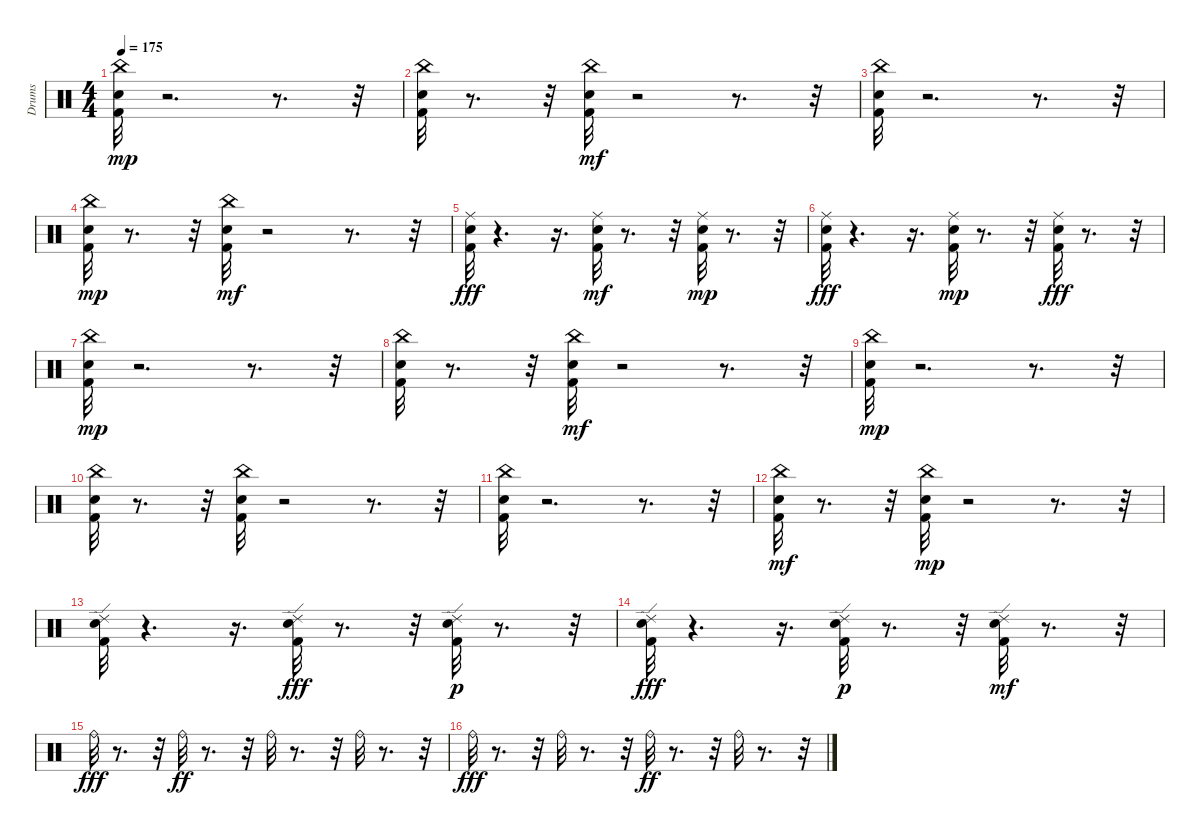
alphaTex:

\track ("Drums" "Drums") {instrument percussion}
\staff {score}
\articulation defaults
\ts (4 4)
\tempo 175
\clef neutral
\ks c
("China (hit)" "Snare (hit) 2" "Kick (hit) 2").32{dy mp} r.2{d} r.8{d} r.32 |
("Kick (hit) 2" "China (hit)" "Snare (hit) 2").32 r.8{d} r.32 ("China (hit)" "Snare (hit) 2" "Kick (hit) 2").32{dy mf} r.2 r.8{d} r.32 |
("Snare (hit) 2" "Kick (hit) 2" "China (hit)").32 r.2{d} r.8{d} r.32 |
("Snare (hit) 2" "Kick (hit) 2" "China (hit)").32{dy mp} r.8{d} r.32 ("China (hit)" "Kick (hit) 2" "Snare (hit) 2").32{dy mf} r.2 r.8{d} r.32 |
("Snare (hit) 2" "Kick (hit) 2" "Ride (middle)").32{dy fff} r.4{d} r.16{d} ("Kick (hit) 2" "Ride (middle)" "Snare (hit) 2").32{dy mf} r.8{d} r.32 ("Ride (middle)" "Snare (hit) 2" "Kick (hit) 2").32{dy mp} r.8{d} r.32 |
("Kick (hit) 2" "Snare (hit) 2" "Ride (middle)").32{dy fff} r.4{d} r.16{d} ("Ride (middle)" "Snare (hit) 2" "Kick (hit) 2").32{dy mp} r.8{d} r.32 ("Snare (hit) 2" "Kick (hit) 2" "Ride (middle)").32{dy fff} r.8{d} r.32 |
("China (hit)" "Kick (hit) 2" "Snare (hit) 2").32{dy mp} r.2{d} r.8{d} r.32 |
("Kick (hit) 2" "China (hit)" "Snare (hit) 2").32 r.8{d} r.32 ("Kick (hit) 2" "China (hit)" "Snare (hit) 2").32{dy mf} r.2 r.8{d} r.32 |
("Kick (hit) 2" "China (hit)" "Snare (hit) 2").32{dy mp} r.2{d} r.8{d} r.32 |
("Snare (hit) 2" "China (hit)" "Kick (hit) 2").32 r.8{d} r.32 ("Kick (hit) 2" "Snare (hit) 2" "China (hit)").32 r.2 r.8{d} r.32 |
("Snare (hit) 2" "China (hit)" "Kick (hit) 2").32 r.2{d} r.8{d} r.32 |
("Snare (hit) 2" "Kick (hit) 2" "China (hit)").32{dy mf} r.8{d} r.32 ("China (hit)" "Kick (hit) 2" "Snare (hit) 2").32{dy mp} r.2 r.8{d} r.32 |
("Ride (edge) 2" "Kick (hit) 2" "Snare (hit) 2").32 r.4{d} r.16{d} ("Kick (hit) 2" "Snare (hit) 2" "Ride (edge) 2").32{dy fff} r.8{d} r.32 ("Ride (edge) 2" "Kick (hit) 2" "Snare (hit) 2").32{dy p} r.8{d} r.32 |
("Snare (hit) 2" "Kick (hit) 2" "Ride (edge) 2").32{dy fff} r.4{d} r.16{d} ("Kick (hit) 2" "Ride (edge) 2" "Snare (hit) 2").32{dy p} r.8{d} r.32 ("Snare (hit) 2" "Ride (edge) 2" "Kick (hit) 2").32{dy mf} r.8{d} r.32 |
"Ride (bell)".32{dy fff} r.8{d} r.32 "Ride (bell)".32{dy ff} r.8{d} r.32 "Ride (bell)".32 r.8{d} r.32 "Ride (bell)".32 r.8{d} r.32 |
"Ride (bell)".32{dy fff} r.8{d} r.32 "Ride (bell)".32 r.8{d} r.32 "Ride (bell)".32{dy ff} r.8{d} r.32 "Ride (bell)".32 r.8{d} r.32
